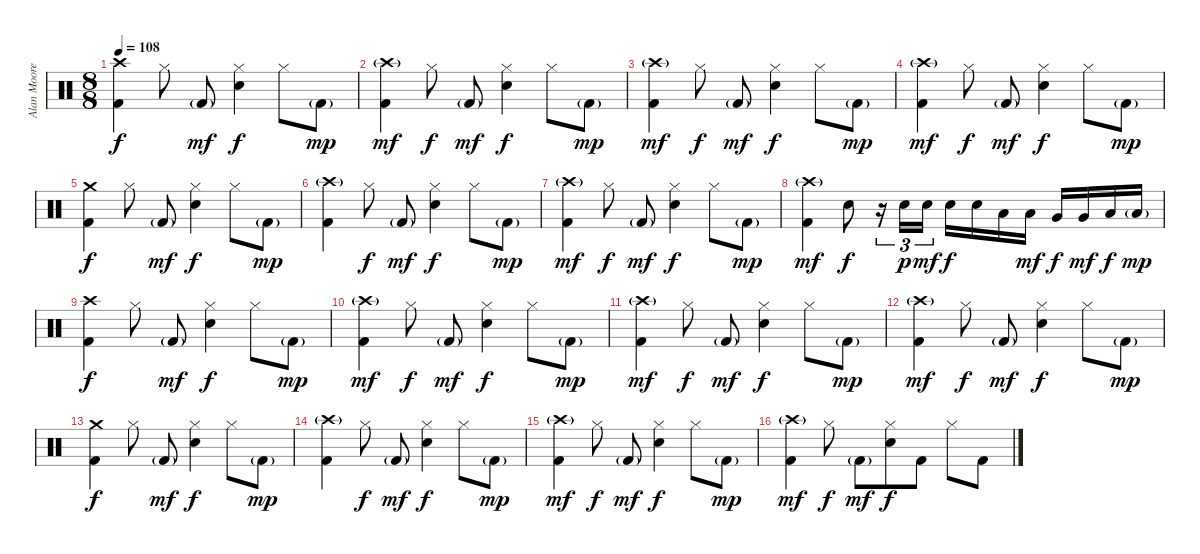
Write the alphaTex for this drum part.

\track ("Alan Moore" "Alan Moore") {instrument percussion}
\staff {score}
\articulation defaults
\ts (8 8)
\tempo 108
\clef neutral
\ks c
("Crash high (hit)" "Kick (hit) 2").4{dy f} "Hi-Hat (closed)".8 "Kick (hit) 2"{g}.8{dy mf} ("Hi-Hat (closed)" "Snare (hit) 2").4{dy f} "Hi-Hat (closed)".8 "Kick (hit) 2"{g}.8{dy mp} |
("Crash high (hit)"{g} "Kick (hit) 2").4{dy mf} "Hi-Hat (closed)".8{dy f} "Kick (hit) 2"{g}.8{dy mf} ("Hi-Hat (closed)" "Snare (hit) 2").4{dy f} "Hi-Hat (closed)".8 "Kick (hit) 2"{g}.8{dy mp} |
("Crash high (hit)"{g} "Kick (hit) 2").4{dy mf} "Hi-Hat (closed)".8{dy f} "Kick (hit) 2"{g}.8{dy mf} ("Hi-Hat (closed)" "Snare (hit) 2").4{dy f} "Hi-Hat (closed)".8 "Kick (hit) 2"{g}.8{dy mp} |
("Crash high (hit)"{g} "Kick (hit) 2").4{dy mf} "Hi-Hat (closed)".8{dy f} "Kick (hit) 2"{g}.8{dy mf} ("Hi-Hat (closed)" "Snare (hit) 2").4{dy f} "Hi-Hat (closed)".8 "Kick (hit) 2"{g}.8{dy mp} |
("Crash medium (hit)" "Kick (hit) 2").4{dy f} "Hi-Hat (closed)".8 "Kick (hit) 2"{g}.8{dy mf} ("Hi-Hat (closed)" "Snare (hit) 2").4{dy f} "Hi-Hat (closed)".8 "Kick (hit) 2"{g}.8{dy mp} |
("Crash high (hit)"{g} "Kick (hit) 2").4 "Hi-Hat (closed)".8{dy f} "Kick (hit) 2"{g}.8{dy mf} ("Hi-Hat (closed)" "Snare (hit) 2").4{dy f} "Hi-Hat (closed)".8 "Kick (hit) 2"{g}.8{dy mp} |
("Crash high (hit)"{g} "Kick (hit) 2").4{dy mf} "Hi-Hat (closed)".8{dy f} "Kick (hit) 2"{g}.8{dy mf} ("Hi-Hat (closed)" "Snare (hit) 2").4{dy f} "Hi-Hat (closed)".8 "Kick (hit) 2"{g}.8{dy mp} |
("Crash high (hit)"{g} "Kick (hit) 2").4{dy mf} "Snare (hit) 2".8{dy f} r.16{tu (3 2)} "Snare (hit) 2".16{tu (3 2) dy p} "Snare (hit) 2".16{tu (3 2) dy mf} "Snare (hit) 2".16{dy f} "Snare (hit) 2".16 "Low Tom (hit)".16 "Low Tom (hit)".16{dy mf} "Very Low Tom (hit)".16{dy f} "Very Low Tom (hit)".16{dy mf} "Low Floor Tom (hit)".16{dy f} "Low Floor Tom (hit)"{g}.16{dy mp} |
("Crash high (hit)" "Kick (hit) 2").4{dy f} "Hi-Hat (closed)".8 "Kick (hit) 2"{g}.8{dy mf} ("Hi-Hat (closed)" "Snare (hit) 2").4{dy f} "Hi-Hat (closed)".8 "Kick (hit) 2"{g}.8{dy mp} |
("Crash high (hit)"{g} "Kick (hit) 2").4{dy mf} "Hi-Hat (closed)".8{dy f} "Kick (hit) 2"{g}.8{dy mf} ("Hi-Hat (closed)" "Snare (hit) 2").4{dy f} "Hi-Hat (closed)".8 "Kick (hit) 2"{g}.8{dy mp} |
("Crash high (hit)"{g} "Kick (hit) 2").4{dy mf} "Hi-Hat (closed)".8{dy f} "Kick (hit) 2"{g}.8{dy mf} ("Hi-Hat (closed)" "Snare (hit) 2").4{dy f} "Hi-Hat (closed)".8 "Kick (hit) 2"{g}.8{dy mp} |
("Crash high (hit)"{g} "Kick (hit) 2").4{dy mf} "Hi-Hat (closed)".8{dy f} "Kick (hit) 2"{g}.8{dy mf} ("Hi-Hat (closed)" "Snare (hit) 2").4{dy f} "Hi-Hat (closed)".8 "Kick (hit) 2"{g}.8{dy mp} |
("Crash medium (hit)" "Kick (hit) 2").4{dy f} "Hi-Hat (closed)".8 "Kick (hit) 2"{g}.8{dy mf} ("Hi-Hat (closed)" "Snare (hit) 2").4{dy f} "Hi-Hat (closed)".8 "Kick (hit) 2"{g}.8{dy mp} |
("Crash high (hit)"{g} "Kick (hit) 2").4 "Hi-Hat (closed)".8{dy f} "Kick (hit) 2"{g}.8{dy mf} ("Hi-Hat (closed)" "Snare (hit) 2").4{dy f} "Hi-Hat (closed)".8 "Kick (hit) 2"{g}.8{dy mp} |
("Crash high (hit)"{g} "Kick (hit) 2").4{dy mf} "Hi-Hat (closed)".8{dy f} "Kick (hit) 2"{g}.8{dy mf} ("Hi-Hat (closed)" "Snare (hit) 2").4{dy f} "Hi-Hat (closed)".8 "Kick (hit) 2"{g}.8{dy mp} |
("Crash high (hit)"{g} "Kick (hit) 2").4{dy mf} "Hi-Hat (closed)".8{dy f} "Kick (hit) 2"{g}.8{dy mf} ("Hi-Hat (closed)" "Snare (hit) 2").8{dy f} "Kick (hit) 2".8 "Hi-Hat (closed)".8 "Kick (hit) 2".8
